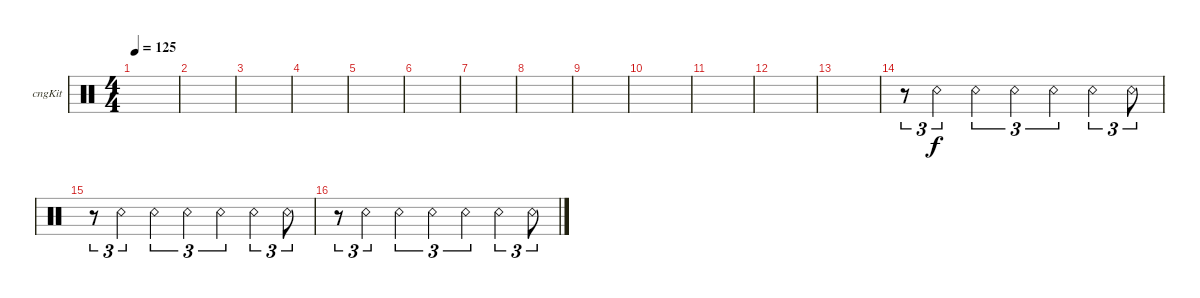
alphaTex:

\defaultSystemsLayout 4
\bracketExtendMode groupsimilarinstruments
\firstSystemTrackNameOrientation horizontal
\otherSystemsTrackNameOrientation horizontal
\track ("Congas" "cngKit") {instrument percussion}
\staff {score}
\articulation defaults
\ts (4 4)
\tempo 125
\clef neutral
\scale
0.474178
\ks c
|
\scale
0.262911 |
\scale
0.262911 |
\scale
0.333333 |
\scale
0.333333 |
\scale
0.333333 |
\scale
0.333333 |
\scale
0.333333 |
\scale
0.333333 |
\scale
0.333333 |
\scale
0.333333 |
\scale
0.333333 |
\scale
0.333333 |
\scale
0.333333 r.8{tu (3 2)} "Snare (rim shot)".4{tu (3 2)} "Snare (rim shot)".4{tu (3 2)} "Snare (rim shot)".4{tu (3 2)} "Snare (rim shot)".4{tu (3 2)} "Snare (rim shot)".4{tu (3 2)} "Snare (rim shot)".8{tu (3 2)} |
\scale
0.333333 r.8{tu (3 2)} "Snare (rim shot)".4{tu (3 2)} "Snare (rim shot)".4{tu (3 2)} "Snare (rim shot)".4{tu (3 2)} "Snare (rim shot)".4{tu (3 2)} "Snare (rim shot)".4{tu (3 2)} "Snare (rim shot)".8{tu (3 2)} |
\scale
0.333333 r.8{tu (3 2)} "Snare (rim shot)".4{tu (3 2)} "Snare (rim shot)".4{tu (3 2)} "Snare (rim shot)".4{tu (3 2)} "Snare (rim shot)".4{tu (3 2)} "Snare (rim shot)".4{tu (3 2)} "Snare (rim shot)".8{tu (3 2)}
